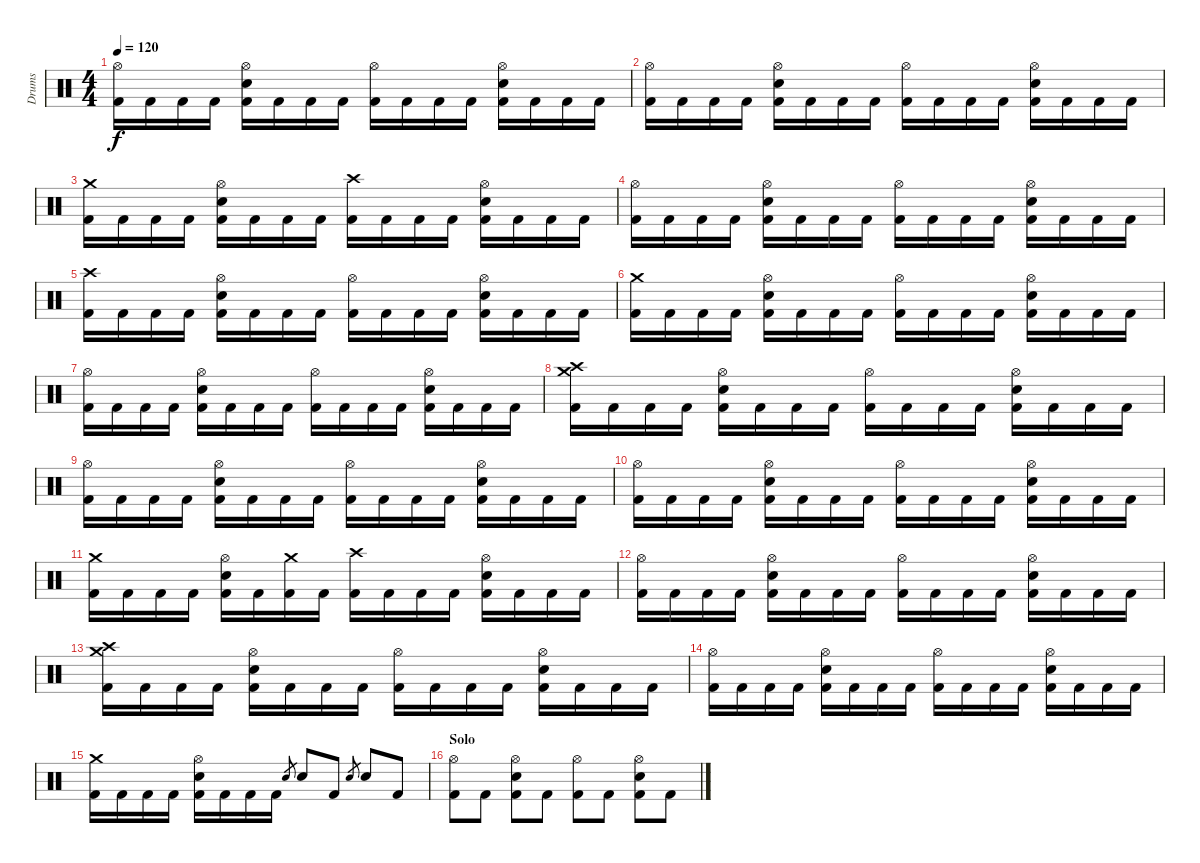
\track ("Drums" "Drums") {instrument percussion}
\staff {score}
\articulation defaults
\ts (4 4)
\tempo 120
\clef neutral
\ks c
("Hi-Hat (open)" "Kick (hit) 2").16{dy f} "Kick (hit) 2".16 "Kick (hit) 2".16 "Kick (hit) 2".16 ("Hi-Hat (open)" "Snare (hit) 2" "Kick (hit) 2").16 "Kick (hit) 2".16 "Kick (hit) 2".16 "Kick (hit) 2".16 ("Hi-Hat (open)" "Kick (hit) 2").16 "Kick (hit) 2".16 "Kick (hit) 2".16 "Kick (hit) 2".16 ("Hi-Hat (open)" "Snare (hit) 2" "Kick (hit) 2").16 "Kick (hit) 2".16 "Kick (hit) 2".16 "Kick (hit) 2".16 |
("Hi-Hat (open)" "Kick (hit) 2").16 "Kick (hit) 2".16 "Kick (hit) 2".16 "Kick (hit) 2".16 ("Hi-Hat (open)" "Snare (hit) 2" "Kick (hit) 2").16 "Kick (hit) 2".16 "Kick (hit) 2".16 "Kick (hit) 2".16 ("Hi-Hat (open)" "Kick (hit) 2").16 "Kick (hit) 2".16 "Kick (hit) 2".16 "Kick (hit) 2".16 ("Hi-Hat (open)" "Snare (hit) 2" "Kick (hit) 2").16 "Kick (hit) 2".16 "Kick (hit) 2".16 "Kick (hit) 2".16 |
("Crash medium (hit)" "Kick (hit) 2").16 "Kick (hit) 2".16 "Kick (hit) 2".16 "Kick (hit) 2".16 ("Hi-Hat (open)" "Snare (hit) 2" "Kick (hit) 2").16 "Kick (hit) 2".16 "Kick (hit) 2".16 "Kick (hit) 2".16 ("Crash high (hit)" "Kick (hit) 2").16 "Kick (hit) 2".16 "Kick (hit) 2".16 "Kick (hit) 2".16 ("Hi-Hat (open)" "Snare (hit) 2" "Kick (hit) 2").16 "Kick (hit) 2".16 "Kick (hit) 2".16 "Kick (hit) 2".16 |
("Hi-Hat (open)" "Kick (hit) 2").16 "Kick (hit) 2".16 "Kick (hit) 2".16 "Kick (hit) 2".16 ("Hi-Hat (open)" "Snare (hit) 2" "Kick (hit) 2").16 "Kick (hit) 2".16 "Kick (hit) 2".16 "Kick (hit) 2".16 ("Hi-Hat (open)" "Kick (hit) 2").16 "Kick (hit) 2".16 "Kick (hit) 2".16 "Kick (hit) 2".16 ("Hi-Hat (open)" "Snare (hit) 2" "Kick (hit) 2").16 "Kick (hit) 2".16 "Kick (hit) 2".16 "Kick (hit) 2".16 |
("Crash high (hit)" "Kick (hit) 2").16 "Kick (hit) 2".16 "Kick (hit) 2".16 "Kick (hit) 2".16 ("Hi-Hat (open)" "Snare (hit) 2" "Kick (hit) 2").16 "Kick (hit) 2".16 "Kick (hit) 2".16 "Kick (hit) 2".16 ("Hi-Hat (open)" "Kick (hit) 2").16 "Kick (hit) 2".16 "Kick (hit) 2".16 "Kick (hit) 2".16 ("Hi-Hat (open)" "Snare (hit) 2" "Kick (hit) 2").16 "Kick (hit) 2".16 "Kick (hit) 2".16 "Kick (hit) 2".16 |
("Crash medium (hit)" "Kick (hit) 2").16 "Kick (hit) 2".16 "Kick (hit) 2".16 "Kick (hit) 2".16 ("Hi-Hat (open)" "Snare (hit) 2" "Kick (hit) 2").16 "Kick (hit) 2".16 "Kick (hit) 2".16 "Kick (hit) 2".16 ("Hi-Hat (open)" "Kick (hit) 2").16 "Kick (hit) 2".16 "Kick (hit) 2".16 "Kick (hit) 2".16 ("Hi-Hat (open)" "Snare (hit) 2" "Kick (hit) 2").16 "Kick (hit) 2".16 "Kick (hit) 2".16 "Kick (hit) 2".16 |
("Hi-Hat (open)" "Kick (hit) 2").16 "Kick (hit) 2".16 "Kick (hit) 2".16 "Kick (hit) 2".16 ("Hi-Hat (open)" "Snare (hit) 2" "Kick (hit) 2").16 "Kick (hit) 2".16 "Kick (hit) 2".16 "Kick (hit) 2".16 ("Hi-Hat (open)" "Kick (hit) 2").16 "Kick (hit) 2".16 "Kick (hit) 2".16 "Kick (hit) 2".16 ("Hi-Hat (open)" "Snare (hit) 2" "Kick (hit) 2").16 "Kick (hit) 2".16 "Kick (hit) 2".16 "Kick (hit) 2".16 |
("Crash high (hit)" "Crash medium (hit)" "Kick (hit) 2").16 "Kick (hit) 2".16 "Kick (hit) 2".16 "Kick (hit) 2".16 ("Hi-Hat (open)" "Snare (hit) 2" "Kick (hit) 2").16 "Kick (hit) 2".16 "Kick (hit) 2".16 "Kick (hit) 2".16 ("Hi-Hat (open)" "Kick (hit) 2").16 "Kick (hit) 2".16 "Kick (hit) 2".16 "Kick (hit) 2".16 ("Hi-Hat (open)" "Snare (hit) 2" "Kick (hit) 2").16 "Kick (hit) 2".16 "Kick (hit) 2".16 "Kick (hit) 2".16 |
("Hi-Hat (open)" "Kick (hit) 2").16 "Kick (hit) 2".16 "Kick (hit) 2".16 "Kick (hit) 2".16 ("Hi-Hat (open)" "Snare (hit) 2" "Kick (hit) 2").16 "Kick (hit) 2".16 "Kick (hit) 2".16 "Kick (hit) 2".16 ("Hi-Hat (open)" "Kick (hit) 2").16 "Kick (hit) 2".16 "Kick (hit) 2".16 "Kick (hit) 2".16 ("Hi-Hat (open)" "Snare (hit) 2" "Kick (hit) 2").16 "Kick (hit) 2".16 "Kick (hit) 2".16 "Kick (hit) 2".16 |
("Hi-Hat (open)" "Kick (hit) 2").16 "Kick (hit) 2".16 "Kick (hit) 2".16 "Kick (hit) 2".16 ("Hi-Hat (open)" "Snare (hit) 2" "Kick (hit) 2").16 "Kick (hit) 2".16 "Kick (hit) 2".16 "Kick (hit) 2".16 ("Hi-Hat (open)" "Kick (hit) 2").16 "Kick (hit) 2".16 "Kick (hit) 2".16 "Kick (hit) 2".16 ("Hi-Hat (open)" "Snare (hit) 2" "Kick (hit) 2").16 "Kick (hit) 2".16 "Kick (hit) 2".16 "Kick (hit) 2".16 |
("Crash medium (hit)" "Kick (hit) 2").16 "Kick (hit) 2".16 "Kick (hit) 2".16 "Kick (hit) 2".16 ("Hi-Hat (open)" "Snare (hit) 2" "Kick (hit) 2").16 "Kick (hit) 2".16 ("Crash medium (hit)" "Kick (hit) 2").16 "Kick (hit) 2".16 ("Crash high (hit)" "Kick (hit) 2").16 "Kick (hit) 2".16 "Kick (hit) 2".16 "Kick (hit) 2".16 ("Hi-Hat (open)" "Snare (hit) 2" "Kick (hit) 2").16 "Kick (hit) 2".16 "Kick (hit) 2".16 "Kick (hit) 2".16 |
("Hi-Hat (open)" "Kick (hit) 2").16 "Kick (hit) 2".16 "Kick (hit) 2".16 "Kick (hit) 2".16 ("Hi-Hat (open)" "Snare (hit) 2" "Kick (hit) 2").16 "Kick (hit) 2".16 "Kick (hit) 2".16 "Kick (hit) 2".16 ("Hi-Hat (open)" "Kick (hit) 2").16 "Kick (hit) 2".16 "Kick (hit) 2".16 "Kick (hit) 2".16 ("Hi-Hat (open)" "Snare (hit) 2" "Kick (hit) 2").16 "Kick (hit) 2".16 "Kick (hit) 2".16 "Kick (hit) 2".16 |
("Crash high (hit)" "Crash medium (hit)" "Kick (hit) 2").16 "Kick (hit) 2".16 "Kick (hit) 2".16 "Kick (hit) 2".16 ("Hi-Hat (open)" "Snare (hit) 2" "Kick (hit) 2").16 "Kick (hit) 2".16 "Kick (hit) 2".16 "Kick (hit) 2".16 ("Hi-Hat (open)" "Kick (hit) 2").16 "Kick (hit) 2".16 "Kick (hit) 2".16 "Kick (hit) 2".16 ("Hi-Hat (open)" "Snare (hit) 2" "Kick (hit) 2").16 "Kick (hit) 2".16 "Kick (hit) 2".16 "Kick (hit) 2".16 |
("Hi-Hat (open)" "Kick (hit) 2").16 "Kick (hit) 2".16 "Kick (hit) 2".16 "Kick (hit) 2".16 ("Hi-Hat (open)" "Snare (hit) 2" "Kick (hit) 2").16 "Kick (hit) 2".16 "Kick (hit) 2".16 "Kick (hit) 2".16 ("Hi-Hat (open)" "Kick (hit) 2").16 "Kick (hit) 2".16 "Kick (hit) 2".16 "Kick (hit) 2".16 ("Hi-Hat (open)" "Snare (hit) 2" "Kick (hit) 2").16 "Kick (hit) 2".16 "Kick (hit) 2".16 "Kick (hit) 2".16 |
("Crash medium (hit)" "Kick (hit) 2").16 "Kick (hit) 2".16 "Kick (hit) 2".16 "Kick (hit) 2".16 ("Hi-Hat (open)" "Snare (hit) 2" "Kick (hit) 2").16 "Kick (hit) 2".16 "Kick (hit) 2".16 "Kick (hit) 2".16 "Snare (hit) 2".8{gr} "Snare (hit) 2".8 "Kick (hit) 2".8 "Snare (hit) 2".8{gr} "Snare (hit) 2".8 "Kick (hit) 2".8 |
\section ("" "Solo")
("Hi-Hat (open)" "Kick (hit) 2").8 "Kick (hit) 2".8 ("Hi-Hat (open)" "Snare (hit) 2" "Kick (hit) 2").8 "Kick (hit) 2".8 ("Hi-Hat (open)" "Kick (hit) 2").8 "Kick (hit) 2".8 ("Hi-Hat (open)" "Snare (hit) 2" "Kick (hit) 2").8 "Kick (hit) 2".8
